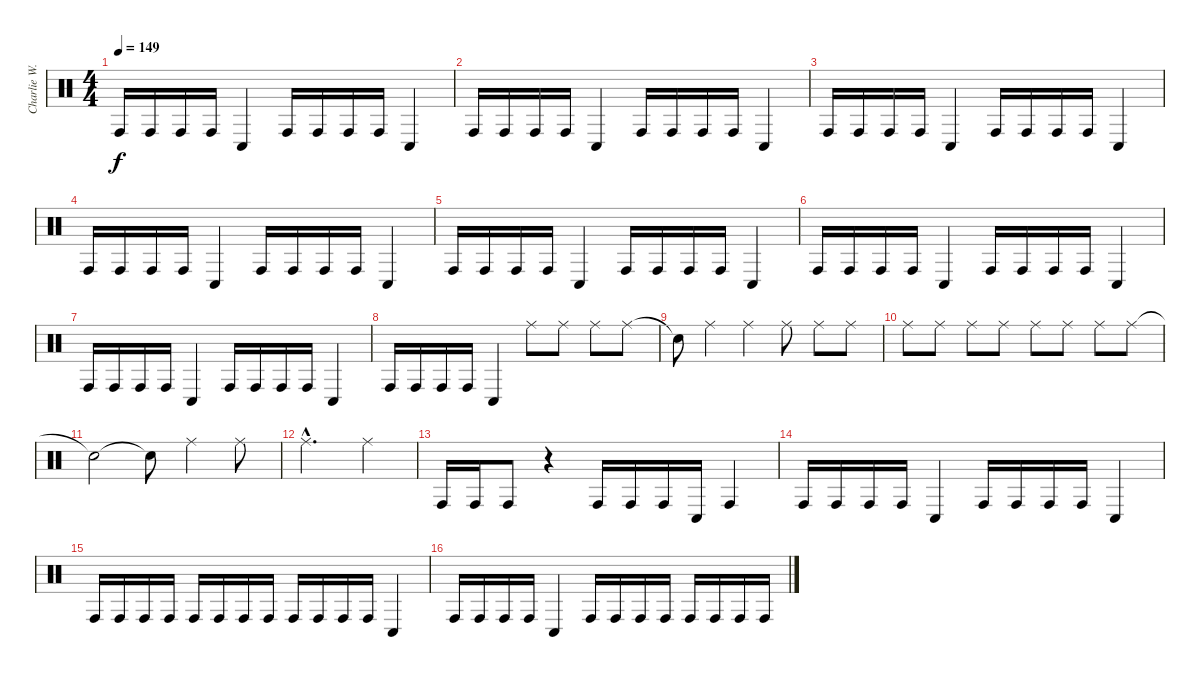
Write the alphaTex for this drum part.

\track ("Charlie W. drums" "Charlie W.") {instrument percussion}
\staff {score}
\articulation defaults
\ts (4 4)
\tempo 149
\clef neutral
\ks c "Conga high (hit)".16{dy f} "Conga high (hit)".16 "Conga high (hit)".16 "Conga high (hit)".16 "Conga low (hit)".4 "Conga high (hit)".16 "Conga high (hit)".16 "Conga high (hit)".16 "Conga high (hit)".16 "Conga low (hit)".4
|
"Conga high (hit)".16 "Conga high (hit)".16 "Conga high (hit)".16 "Conga high (hit)".16 "Conga low (hit)".4 "Conga high (hit)".16 "Conga high (hit)".16 "Conga high (hit)".16 "Conga high (hit)".16 "Conga low (hit)".4 |
"Conga high (hit)".16 "Conga high (hit)".16 "Conga high (hit)".16 "Conga high (hit)".16 "Conga low (hit)".4 "Conga high (hit)".16 "Conga high (hit)".16 "Conga high (hit)".16 "Conga high (hit)".16 "Conga low (hit)".4 |
"Conga high (hit)".16 "Conga high (hit)".16 "Conga high (hit)".16 "Conga high (hit)".16 "Conga low (hit)".4 "Conga high (hit)".16 "Conga high (hit)".16 "Conga high (hit)".16 "Conga high (hit)".16 "Conga low (hit)".4 |
"Conga high (hit)".16 "Conga high (hit)".16 "Conga high (hit)".16 "Conga high (hit)".16 "Conga low (hit)".4 "Conga high (hit)".16 "Conga high (hit)".16 "Conga high (hit)".16 "Conga high (hit)".16 "Conga low (hit)".4 |
"Conga high (hit)".16 "Conga high (hit)".16 "Conga high (hit)".16 "Conga high (hit)".16 "Conga low (hit)".4 "Conga high (hit)".16 "Conga high (hit)".16 "Conga high (hit)".16 "Conga high (hit)".16 "Conga low (hit)".4 |
"Conga high (hit)".16 "Conga high (hit)".16 "Conga high (hit)".16 "Conga high (hit)".16 "Conga low (hit)".4 "Conga high (hit)".16 "Conga high (hit)".16 "Conga high (hit)".16 "Conga high (hit)".16 "Conga low (hit)".4 |
"Conga high (hit)".16 "Conga high (hit)".16 "Conga high (hit)".16 "Conga high (hit)".16 "Conga low (hit)".4 "Ride (middle)".8 "Ride (middle)".8 "Ride (middle)".8 "Ride (middle)".8 |
"Snare (hit)"{t}.8 "Ride (middle)".4 "Ride (middle)".4 "Ride (middle)".8 "Ride (middle)".8 "Ride (middle)".8 |
"Ride (middle)".8 "Ride (middle)".8 "Ride (middle)".8 "Ride (middle)".8 "Ride (middle)".8 "Ride (middle)".8 "Ride (middle)".8 "Ride (middle)".8 |
"Snare (hit)"{t}.2 "Snare (hit)"{t}.8 "Ride (middle)".4 "Ride (middle)".8 |
"Ride (middle)"{hac}.2{d} "Ride (middle)".4 |
"Conga high (hit)".16 "Conga high (hit)".16 "Conga high (hit)".8 r.4 "Conga high (hit)".16 "Conga high (hit)".16 "Conga high (hit)".16 "Conga low (hit)".16 "Conga high (hit)".4 |
"Conga high (hit)".16 "Conga high (hit)".16 "Conga high (hit)".16 "Conga high (hit)".16 "Conga low (hit)".4 "Conga high (hit)".16 "Conga high (hit)".16 "Conga high (hit)".16 "Conga high (hit)".16 "Conga low (hit)".4 |
"Conga high (hit)".16 "Conga high (hit)".16 "Conga high (hit)".16 "Conga high (hit)".16 "Conga high (hit)".16 "Conga high (hit)".16 "Conga high (hit)".16 "Conga high (hit)".16 "Conga high (hit)".16 "Conga high (hit)".16 "Conga high (hit)".16 "Conga high (hit)".16 "Conga low (hit)".4 |
"Conga high (hit)".16 "Conga high (hit)".16 "Conga high (hit)".16 "Conga high (hit)".16 "Conga low (hit)".4 "Conga high (hit)".16 "Conga high (hit)".16 "Conga high (hit)".16 "Conga high (hit)".16 "Conga high (hit)".16 "Conga high (hit)".16 "Conga high (hit)".16 "Conga high (hit)".16
